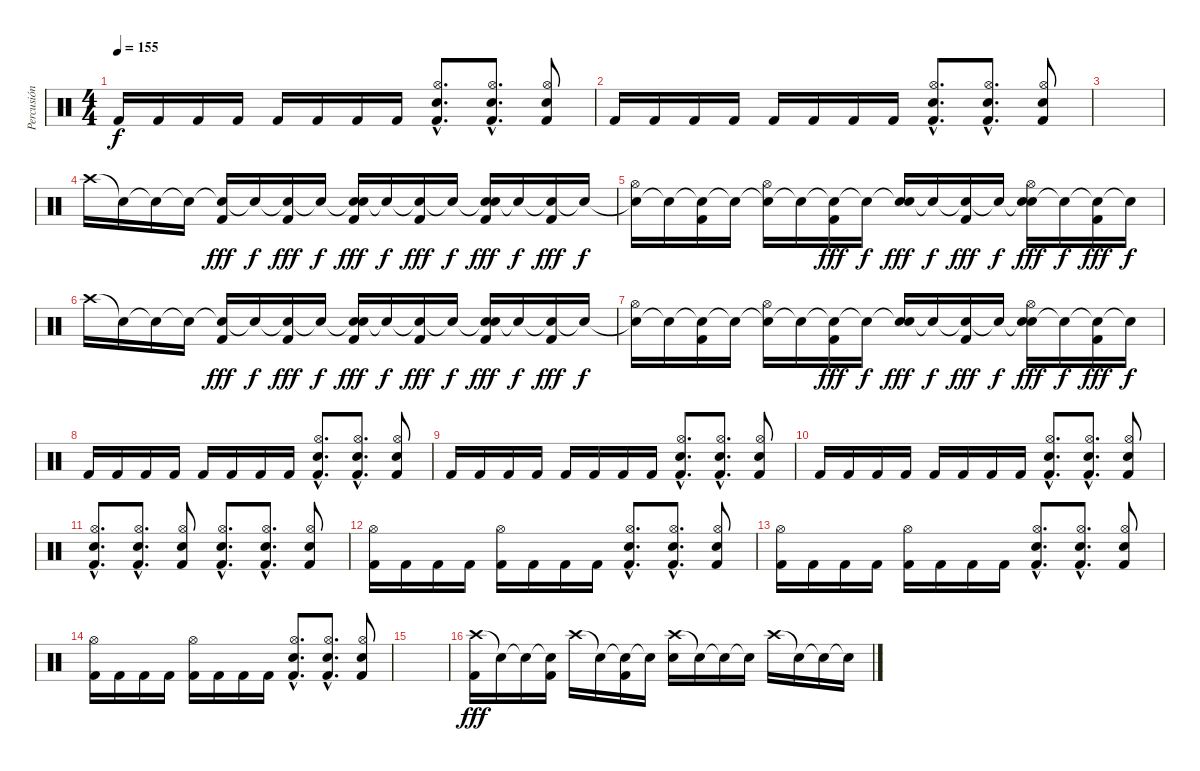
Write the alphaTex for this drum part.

\track ("Percusión" "Percusión") {instrument percussion}
\staff {score}
\articulation defaults
\ts (4 4)
\tempo 155
\clef neutral
\ks c "Kick (hit) 2".16{dy f} "Kick (hit) 2".16 "Kick (hit) 2".16 "Kick (hit) 2".16 "Kick (hit) 2".16 "Kick (hit) 2".16 "Kick (hit) 2".16 "Kick (hit) 2".16
("Hi-Hat (open)"{hac} "Electric Snare (hit)"{hac} "Kick (hit) 2"{hac}).8{d} ("Hi-Hat (open)"{hac} "Electric Snare (hit)"{hac} "Kick (hit) 2"{hac}).8{d} ("Hi-Hat (open)" "Electric Snare (hit)" "Kick (hit) 2").8 |
"Kick (hit) 2".16 "Kick (hit) 2".16 "Kick (hit) 2".16 "Kick (hit) 2".16 "Kick (hit) 2".16 "Kick (hit) 2".16 "Kick (hit) 2".16 "Kick (hit) 2".16 ("Hi-Hat (open)"{hac} "Electric Snare (hit)"{hac} "Kick (hit) 2"{hac}).8{d} ("Hi-Hat (open)"{hac} "Electric Snare (hit)"{hac} "Kick (hit) 2"{hac}).8{d} ("Hi-Hat (open)" "Electric Snare (hit)" "Kick (hit) 2").8 |
|
"Crash high (hit)".16 "Snare (hit)"{t}.16 "Snare (hit)"{t}.16 "Snare (hit)"{t}.16 ("Snare (hit)"{t} "Kick (hit) 2").16{dy fff} "Snare (hit)"{t}.16{dy f} ("Snare (hit)"{t} "Kick (hit) 2").16{dy fff} "Snare (hit)"{t}.16{dy f} ("Snare (hit)"{t} "Electric Snare (hit)" "Kick (hit) 2").16{dy fff} "Snare (hit)"{t}.16{dy f} ("Snare (hit)"{t} "Kick (hit) 2").16{dy fff} "Snare (hit)"{t}.16{dy f} ("Snare (hit)"{t} "Electric Snare (hit)" "Kick (hit) 2").16{dy fff} "Snare (hit)"{t}.16{dy f} ("Snare (hit)"{t} "Kick (hit) 2").16{dy fff} "Snare (hit)"{t}.16{dy f} |
("Snare (hit)"{t} "Hi-Hat (open)").16 "Snare (hit)"{t}.16 ("Snare (hit)"{t} "Kick (hit) 2").16 "Snare (hit)"{t}.16 ("Snare (hit)"{t} "Hi-Hat (open)").16 "Snare (hit)"{t}.16 ("Snare (hit)"{t} "Kick (hit) 2").16{dy fff} "Snare (hit)"{t}.16{dy f} ("Snare (hit)"{t} "Electric Snare (hit)").16{dy fff} "Snare (hit)"{t}.16{dy f} ("Snare (hit)"{t} "Kick (hit) 2").16{dy fff} "Snare (hit)"{t}.16{dy f} ("Snare (hit)"{t} "Electric Snare (hit)" "Hi-Hat (open)").16{dy fff} "Snare (hit)"{t}.16{dy f} ("Snare (hit)"{t} "Kick (hit) 2").16{dy fff} "Snare (hit)"{t}.16{dy f} |
"Crash high (hit)".16 "Snare (hit)"{t}.16 "Snare (hit)"{t}.16 "Snare (hit)"{t}.16 ("Snare (hit)"{t} "Kick (hit) 2").16{dy fff} "Snare (hit)"{t}.16{dy f} ("Snare (hit)"{t} "Kick (hit) 2").16{dy fff} "Snare (hit)"{t}.16{dy f} ("Snare (hit)"{t} "Electric Snare (hit)" "Kick (hit) 2").16{dy fff} "Snare (hit)"{t}.16{dy f} ("Snare (hit)"{t} "Kick (hit) 2").16{dy fff} "Snare (hit)"{t}.16{dy f} ("Snare (hit)"{t} "Electric Snare (hit)" "Kick (hit) 2").16{dy fff} "Snare (hit)"{t}.16{dy f} ("Snare (hit)"{t} "Kick (hit) 2").16{dy fff} "Snare (hit)"{t}.16{dy f} |
("Snare (hit)"{t} "Hi-Hat (open)").16 "Snare (hit)"{t}.16 ("Snare (hit)"{t} "Kick (hit) 2").16 "Snare (hit)"{t}.16 ("Snare (hit)"{t} "Hi-Hat (open)").16 "Snare (hit)"{t}.16 ("Snare (hit)"{t} "Kick (hit) 2").16{dy fff} "Snare (hit)"{t}.16{dy f} ("Snare (hit)"{t} "Electric Snare (hit)").16{dy fff} "Snare (hit)"{t}.16{dy f} ("Snare (hit)"{t} "Kick (hit) 2").16{dy fff} "Snare (hit)"{t}.16{dy f} ("Snare (hit)"{t} "Electric Snare (hit)" "Hi-Hat (open)").16{dy fff} "Snare (hit)"{t}.16{dy f} ("Snare (hit)"{t} "Kick (hit) 2").16{dy fff} "Snare (hit)"{t}.16{dy f} |
"Kick (hit) 2".16 "Kick (hit) 2".16 "Kick (hit) 2".16 "Kick (hit) 2".16 "Kick (hit) 2".16 "Kick (hit) 2".16 "Kick (hit) 2".16 "Kick (hit) 2".16 ("Hi-Hat (open)"{hac} "Electric Snare (hit)"{hac} "Kick (hit) 2"{hac}).8{d} ("Hi-Hat (open)"{hac} "Electric Snare (hit)"{hac} "Kick (hit) 2"{hac}).8{d} ("Hi-Hat (open)" "Electric Snare (hit)" "Kick (hit) 2").8 |
"Kick (hit) 2".16 "Kick (hit) 2".16 "Kick (hit) 2".16 "Kick (hit) 2".16 "Kick (hit) 2".16 "Kick (hit) 2".16 "Kick (hit) 2".16 "Kick (hit) 2".16 ("Hi-Hat (open)"{hac} "Electric Snare (hit)"{hac} "Kick (hit) 2"{hac}).8{d} ("Hi-Hat (open)"{hac} "Electric Snare (hit)"{hac} "Kick (hit) 2"{hac}).8{d} ("Hi-Hat (open)" "Electric Snare (hit)" "Kick (hit) 2").8 |
"Kick (hit) 2".16 "Kick (hit) 2".16 "Kick (hit) 2".16 "Kick (hit) 2".16 "Kick (hit) 2".16 "Kick (hit) 2".16 "Kick (hit) 2".16 "Kick (hit) 2".16 ("Hi-Hat (open)"{hac} "Electric Snare (hit)"{hac} "Kick (hit) 2"{hac}).8{d} ("Hi-Hat (open)"{hac} "Electric Snare (hit)"{hac} "Kick (hit) 2"{hac}).8{d} ("Hi-Hat (open)" "Electric Snare (hit)" "Kick (hit) 2").8 |
("Hi-Hat (open)"{hac} "Electric Snare (hit)"{hac} "Kick (hit) 2"{hac}).8{d} ("Hi-Hat (open)"{hac} "Electric Snare (hit)"{hac} "Kick (hit) 2"{hac}).8{d} ("Hi-Hat (open)" "Electric Snare (hit)" "Kick (hit) 2").8 ("Hi-Hat (open)"{hac} "Electric Snare (hit)"{hac} "Kick (hit) 2"{hac}).8{d} ("Hi-Hat (open)"{hac} "Electric Snare (hit)"{hac} "Kick (hit) 2"{hac}).8{d} ("Hi-Hat (open)" "Electric Snare (hit)" "Kick (hit) 2").8 |
("Hi-Hat (open)" "Kick (hit) 2").16 "Kick (hit) 2".16 "Kick (hit) 2".16 "Kick (hit) 2".16 ("Hi-Hat (open)" "Kick (hit) 2").16 "Kick (hit) 2".16 "Kick (hit) 2".16 "Kick (hit) 2".16 ("Hi-Hat (open)"{hac} "Electric Snare (hit)"{hac} "Kick (hit) 2"{hac}).8{d} ("Hi-Hat (open)"{hac} "Electric Snare (hit)"{hac} "Kick (hit) 2"{hac}).8{d} ("Hi-Hat (open)" "Electric Snare (hit)" "Kick (hit) 2").8 |
("Hi-Hat (open)" "Kick (hit) 2").16 "Kick (hit) 2".16 "Kick (hit) 2".16 "Kick (hit) 2".16 ("Hi-Hat (open)" "Kick (hit) 2").16 "Kick (hit) 2".16 "Kick (hit) 2".16 "Kick (hit) 2".16 ("Hi-Hat (open)"{hac} "Electric Snare (hit)"{hac} "Kick (hit) 2"{hac}).8{d} ("Hi-Hat (open)"{hac} "Electric Snare (hit)"{hac} "Kick (hit) 2"{hac}).8{d} ("Hi-Hat (open)" "Electric Snare (hit)" "Kick (hit) 2").8 |
("Hi-Hat (open)" "Kick (hit) 2").16 "Kick (hit) 2".16 "Kick (hit) 2".16 "Kick (hit) 2".16 ("Hi-Hat (open)" "Kick (hit) 2").16 "Kick (hit) 2".16 "Kick (hit) 2".16 "Kick (hit) 2".16 ("Hi-Hat (open)"{hac} "Electric Snare (hit)"{hac} "Kick (hit) 2"{hac}).8{d} ("Hi-Hat (open)"{hac} "Electric Snare (hit)"{hac} "Kick (hit) 2"{hac}).8{d} ("Hi-Hat (open)" "Electric Snare (hit)" "Kick (hit) 2").8 |
|
("Crash high (hit)" "Kick (hit) 2").16{dy fff} "Snare (hit)"{t}.16 "Snare (hit)"{t}.16 ("Snare (hit)"{t} "Kick (hit) 2").16 "Crash high (hit)".16 "Snare (hit)"{t}.16 ("Snare (hit)"{t} "Kick (hit) 2").16 "Snare (hit)"{t}.16 ("Crash high (hit)" "Electric Snare (hit)").16 "Snare (hit)"{t}.16 "Snare (hit)"{t}.16 "Snare (hit)"{t}.16 "Crash high (hit)".16 "Snare (hit)"{t}.16 "Snare (hit)"{t}.16 "Snare (hit)"{t}.16
